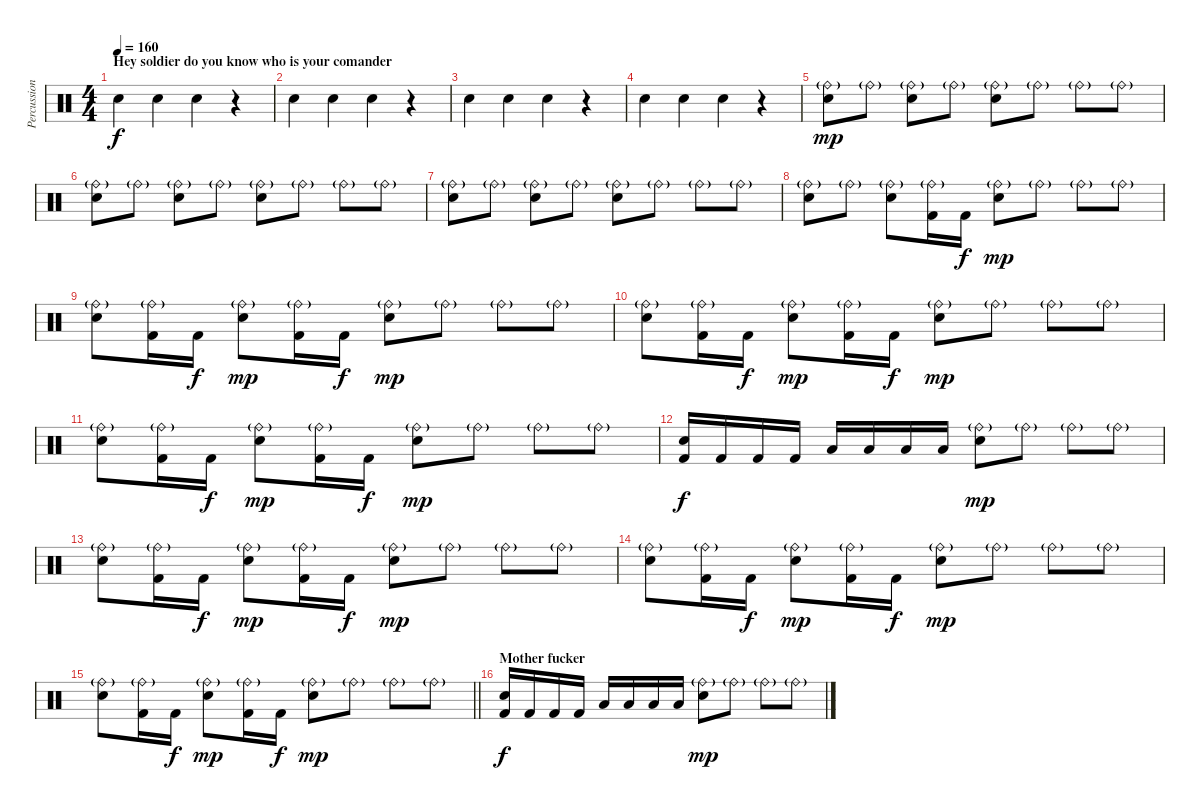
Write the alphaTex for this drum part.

\track ("Percussion" "Percussion") {instrument percussion}
\staff {score}
\articulation defaults
\ts (4 4)
\section ("" "Hey soldier do you know who is your comander")
\tempo 160
\clef neutral
\ks c "Electric Snare (hit)".4{dy f} "Electric Snare (hit)".4 "Electric Snare (hit)".4
r.4 |
"Electric Snare (hit)".4 "Electric Snare (hit)".4 "Electric Snare (hit)".4 r.4 |
"Electric Snare (hit)".4 "Electric Snare (hit)".4 "Electric Snare (hit)".4 r.4 |
"Electric Snare (hit)".4 "Electric Snare (hit)".4 "Electric Snare (hit)".4 r.4 |
("Electric Snare (hit)" "Ride (bell)"{g}).8{dy mp} "Ride (bell)"{g}.8 ("Electric Snare (hit)" "Ride (bell)"{g}).8 "Ride (bell)"{g}.8 ("Electric Snare (hit)" "Ride (bell)"{g}).8 "Ride (bell)"{g}.8 "Ride (bell)"{g}.8 "Ride (bell)"{g}.8 |
("Electric Snare (hit)" "Ride (bell)"{g}).8 "Ride (bell)"{g}.8 ("Electric Snare (hit)" "Ride (bell)"{g}).8 "Ride (bell)"{g}.8 ("Electric Snare (hit)" "Ride (bell)"{g}).8 "Ride (bell)"{g}.8 "Ride (bell)"{g}.8 "Ride (bell)"{g}.8 |
("Electric Snare (hit)" "Ride (bell)"{g}).8 "Ride (bell)"{g}.8 ("Electric Snare (hit)" "Ride (bell)"{g}).8 "Ride (bell)"{g}.8 ("Electric Snare (hit)" "Ride (bell)"{g}).8 "Ride (bell)"{g}.8 "Ride (bell)"{g}.8 "Ride (bell)"{g}.8 |
("Electric Snare (hit)" "Ride (bell)"{g}).8 "Ride (bell)"{g}.8 ("Electric Snare (hit)" "Ride (bell)"{g}).8 ("Kick (hit) 2" "Ride (bell)"{g}).16 "Kick (hit) 2".16{dy f} ("Electric Snare (hit)" "Ride (bell)"{g}).8{dy mp} "Ride (bell)"{g}.8 "Ride (bell)"{g}.8 "Ride (bell)"{g}.8 |
("Electric Snare (hit)" "Ride (bell)"{g}).8 ("Kick (hit) 2" "Ride (bell)"{g}).16 "Kick (hit) 2".16{dy f} ("Electric Snare (hit)" "Ride (bell)"{g}).8{dy mp} ("Kick (hit) 2" "Ride (bell)"{g}).16 "Kick (hit) 2".16{dy f} ("Electric Snare (hit)" "Ride (bell)"{g}).8{dy mp} "Ride (bell)"{g}.8 "Ride (bell)"{g}.8 "Ride (bell)"{g}.8 |
("Electric Snare (hit)" "Ride (bell)"{g}).8 ("Kick (hit) 2" "Ride (bell)"{g}).16 "Kick (hit) 2".16{dy f} ("Electric Snare (hit)" "Ride (bell)"{g}).8{dy mp} ("Kick (hit) 2" "Ride (bell)"{g}).16 "Kick (hit) 2".16{dy f} ("Electric Snare (hit)" "Ride (bell)"{g}).8{dy mp} "Ride (bell)"{g}.8 "Ride (bell)"{g}.8 "Ride (bell)"{g}.8 |
("Electric Snare (hit)" "Ride (bell)"{g}).8 ("Kick (hit) 2" "Ride (bell)"{g}).16 "Kick (hit) 2".16{dy f} ("Electric Snare (hit)" "Ride (bell)"{g}).8{dy mp} ("Kick (hit) 2" "Ride (bell)"{g}).16 "Kick (hit) 2".16{dy f} ("Electric Snare (hit)" "Ride (bell)"{g}).8{dy mp} "Ride (bell)"{g}.8 "Ride (bell)"{g}.8 "Ride (bell)"{g}.8 |
("Kick (hit) 2" "Electric Snare (hit)").16{dy f} "Kick (hit) 2".16 "Kick (hit) 2".16 "Kick (hit) 2".16 "Low Floor Tom (hit)".16 "Low Floor Tom (hit)".16 "Low Floor Tom (hit)".16 "Low Floor Tom (hit)".16 ("Electric Snare (hit)" "Ride (bell)"{g}).8{dy mp} "Ride (bell)"{g}.8 "Ride (bell)"{g}.8 "Ride (bell)"{g}.8 |
("Electric Snare (hit)" "Ride (bell)"{g}).8 ("Kick (hit) 2" "Ride (bell)"{g}).16 "Kick (hit) 2".16{dy f} ("Electric Snare (hit)" "Ride (bell)"{g}).8{dy mp} ("Kick (hit) 2" "Ride (bell)"{g}).16 "Kick (hit) 2".16{dy f} ("Electric Snare (hit)" "Ride (bell)"{g}).8{dy mp} "Ride (bell)"{g}.8 "Ride (bell)"{g}.8 "Ride (bell)"{g}.8 |
("Electric Snare (hit)" "Ride (bell)"{g}).8 ("Kick (hit) 2" "Ride (bell)"{g}).16 "Kick (hit) 2".16{dy f} ("Electric Snare (hit)" "Ride (bell)"{g}).8{dy mp} ("Kick (hit) 2" "Ride (bell)"{g}).16 "Kick (hit) 2".16{dy f} ("Electric Snare (hit)" "Ride (bell)"{g}).8{dy mp} "Ride (bell)"{g}.8 "Ride (bell)"{g}.8 "Ride (bell)"{g}.8 |
\barLineRight lightlight
("Electric Snare (hit)" "Ride (bell)"{g}).8 ("Kick (hit) 2" "Ride (bell)"{g}).16 "Kick (hit) 2".16{dy f} ("Electric Snare (hit)" "Ride (bell)"{g}).8{dy mp} ("Kick (hit) 2" "Ride (bell)"{g}).16 "Kick (hit) 2".16{dy f} ("Electric Snare (hit)" "Ride (bell)"{g}).8{dy mp} "Ride (bell)"{g}.8 "Ride (bell)"{g}.8 "Ride (bell)"{g}.8 |
\section ("" "Mother fucker")
("Kick (hit) 2" "Electric Snare (hit)").16{dy f} "Kick (hit) 2".16 "Kick (hit) 2".16 "Kick (hit) 2".16 "Low Floor Tom (hit)".16 "Low Floor Tom (hit)".16 "Low Floor Tom (hit)".16 "Low Floor Tom (hit)".16 ("Electric Snare (hit)" "Ride (bell)"{g}).8{dy mp} "Ride (bell)"{g}.8 "Ride (bell)"{g}.8 "Ride (bell)"{g}.8
